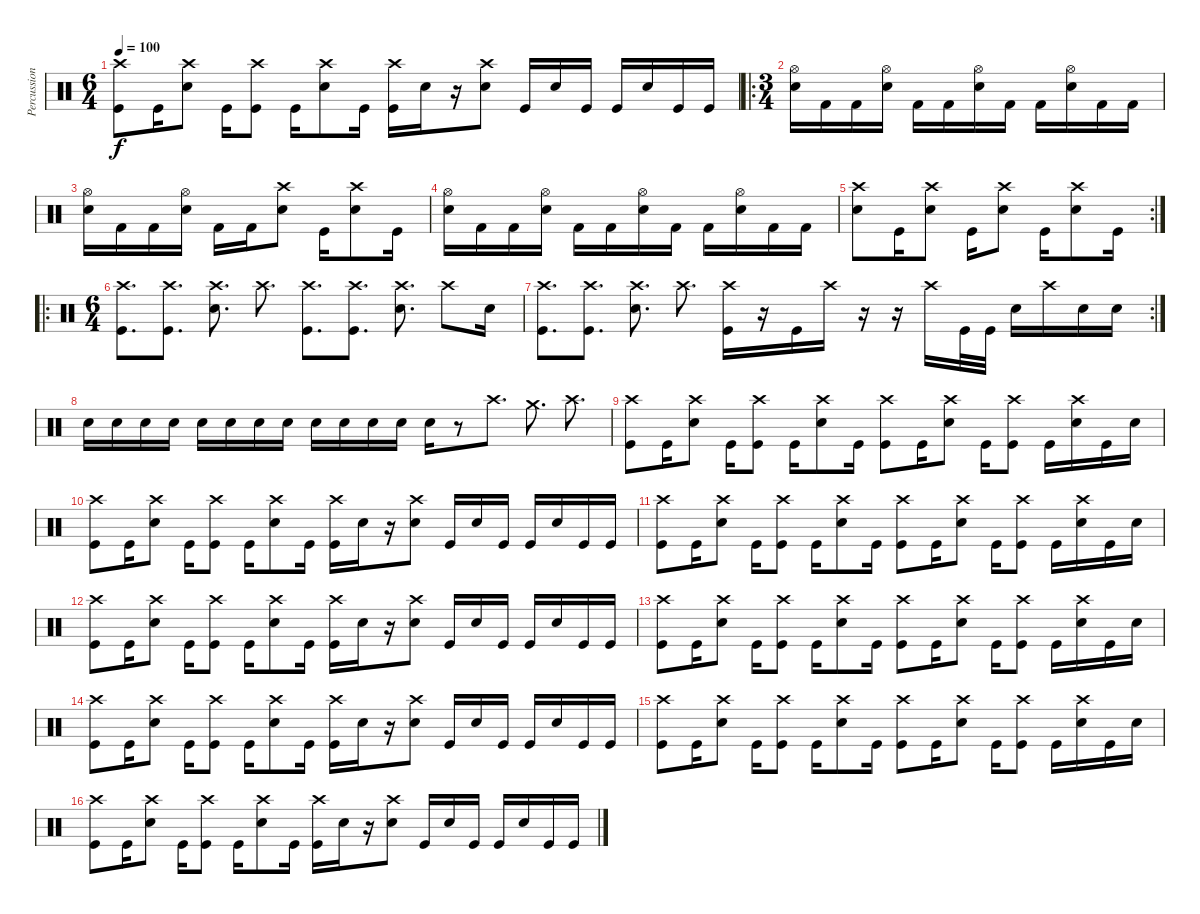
\track ("Percussion" "Percussion") {instrument percussion}
\staff {score}
\articulation defaults
\ts (6 4)
\tempo 100
\clef neutral
\ks c
("Crash high (hit)" "Kick (hit)").8{dy f} "Kick (hit)".16 ("Crash high (hit)" "Snare (hit) 2").8 "Kick (hit)".16 ("Crash high (hit)" "Kick (hit)").8 "Kick (hit)".16 ("Crash high (hit)" "Snare (hit) 2").8 "Kick (hit)".16 ("Crash high (hit)" "Kick (hit)").16 "Snare (hit) 2".16 r.16 ("Crash high (hit)" "Snare (hit) 2").8 "Kick (hit)".16 "Snare (hit) 2".16 "Kick (hit)".16 "Kick (hit)".16 "Snare (hit) 2".16 "Kick (hit)".16 "Kick (hit)".16 |
\ro
\ts (3 4)
("Hi-Hat (open)" "Snare (hit) 2").16 "Kick (hit) 2".16 "Kick (hit) 2".16 ("Hi-Hat (open)" "Snare (hit) 2").16 "Kick (hit) 2".16 "Kick (hit) 2".16 ("Hi-Hat (open)" "Snare (hit) 2").16 "Kick (hit) 2".16 "Kick (hit) 2".16 ("Hi-Hat (open)" "Snare (hit) 2").16 "Kick (hit) 2".16 "Kick (hit) 2".16 |
("Hi-Hat (open)" "Snare (hit) 2").16 "Kick (hit) 2".16 "Kick (hit) 2".16 ("Hi-Hat (open)" "Snare (hit) 2").16 "Kick (hit) 2".16 "Kick (hit) 2".16 ("Crash high (hit)" "Snare (hit) 2").8 "Kick (hit)".16 ("Crash high (hit)" "Snare (hit) 2").8 "Kick (hit)".16 |
("Hi-Hat (open)" "Snare (hit) 2").16 "Kick (hit) 2".16 "Kick (hit) 2".16 ("Hi-Hat (open)" "Snare (hit) 2").16 "Kick (hit) 2".16 "Kick (hit) 2".16 ("Hi-Hat (open)" "Snare (hit) 2").16 "Kick (hit) 2".16 "Kick (hit) 2".16 ("Hi-Hat (open)" "Snare (hit) 2").16 "Kick (hit) 2".16 "Kick (hit) 2".16 |
\rc 2
("Crash high (hit)" "Snare (hit) 2").8 "Kick (hit)".16 ("Crash high (hit)" "Snare (hit) 2").8 "Kick (hit)".16 ("Crash high (hit)" "Snare (hit) 2").8 "Kick (hit)".16 ("Crash high (hit)" "Snare (hit) 2").8 "Kick (hit)".16 |
\ro
\ts (6 4)
("Crash high (hit)" "Kick (hit)").8{d} ("Crash high (hit)" "Kick (hit)").8{d} ("Crash high (hit)" "Snare (hit) 2").8{d} "Crash high (hit)".8{d} ("Crash high (hit)" "Kick (hit)").8{d} ("Crash high (hit)" "Kick (hit)").8{d} ("Crash high (hit)" "Snare (hit) 2").8{d} "Crash high (hit)".8 "Snare (hit) 2".16 |
\rc 2
("Crash high (hit)" "Kick (hit)").8{d} ("Crash high (hit)" "Kick (hit)").8{d} ("Crash high (hit)" "Snare (hit) 2").8{d} "Crash high (hit)".8{d} ("Crash high (hit)" "Kick (hit)").16 r.16 "Kick (hit)".16 "Crash high (hit)".16 r.16 r.16 "Crash high (hit)".16 "Kick (hit)".32 "Kick (hit)".32 "Snare (hit) 2".16 "Crash high (hit)".16 "Snare (hit) 2".16 "Snare (hit) 2".16 |
"Snare (hit) 2".16 "Snare (hit) 2".16 "Snare (hit) 2".16 "Snare (hit) 2".16 "Snare (hit) 2".16 "Snare (hit) 2".16 "Snare (hit) 2".16 "Snare (hit) 2".16 "Snare (hit) 2".16 "Snare (hit) 2".16 "Snare (hit) 2".16 "Snare (hit) 2".16 "Snare (hit) 2".16 r.8 "Crash high (hit)".8{d} "Crash medium (hit)".8{d} "Crash high (hit)".8{d} |
("Crash high (hit)" "Kick (hit)").8 "Kick (hit)".16 ("Crash high (hit)" "Snare (hit) 2").8 "Kick (hit)".16 ("Crash high (hit)" "Kick (hit)").8 "Kick (hit)".16 ("Crash high (hit)" "Snare (hit) 2").8 "Kick (hit)".16 ("Crash high (hit)" "Kick (hit)").8 "Kick (hit)".16 ("Crash high (hit)" "Snare (hit) 2").8 "Kick (hit)".16 ("Crash high (hit)" "Kick (hit)").8 "Kick (hit)".16 ("Crash high (hit)" "Snare (hit) 2").16 "Kick (hit)".16 "Snare (hit) 2".16 |
("Crash high (hit)" "Kick (hit)").8 "Kick (hit)".16 ("Crash high (hit)" "Snare (hit) 2").8 "Kick (hit)".16 ("Crash high (hit)" "Kick (hit)").8 "Kick (hit)".16 ("Crash high (hit)" "Snare (hit) 2").8 "Kick (hit)".16 ("Crash high (hit)" "Kick (hit)").16 "Snare (hit) 2".16 r.16 ("Crash high (hit)" "Snare (hit) 2").8 "Kick (hit)".16 "Snare (hit) 2".16 "Kick (hit)".16 "Kick (hit)".16 "Snare (hit) 2".16 "Kick (hit)".16 "Kick (hit)".16 |
("Crash high (hit)" "Kick (hit)").8 "Kick (hit)".16 ("Crash high (hit)" "Snare (hit) 2").8 "Kick (hit)".16 ("Crash high (hit)" "Kick (hit)").8 "Kick (hit)".16 ("Crash high (hit)" "Snare (hit) 2").8 "Kick (hit)".16 ("Crash high (hit)" "Kick (hit)").8 "Kick (hit)".16 ("Crash high (hit)" "Snare (hit) 2").8 "Kick (hit)".16 ("Crash high (hit)" "Kick (hit)").8 "Kick (hit)".16 ("Crash high (hit)" "Snare (hit) 2").16 "Kick (hit)".16 "Snare (hit) 2".16 |
("Crash high (hit)" "Kick (hit)").8 "Kick (hit)".16 ("Crash high (hit)" "Snare (hit) 2").8 "Kick (hit)".16 ("Crash high (hit)" "Kick (hit)").8 "Kick (hit)".16 ("Crash high (hit)" "Snare (hit) 2").8 "Kick (hit)".16 ("Crash high (hit)" "Kick (hit)").16 "Snare (hit) 2".16 r.16 ("Crash high (hit)" "Snare (hit) 2").8 "Kick (hit)".16 "Snare (hit) 2".16 "Kick (hit)".16 "Kick (hit)".16 "Snare (hit) 2".16 "Kick (hit)".16 "Kick (hit)".16 |
("Crash high (hit)" "Kick (hit)").8 "Kick (hit)".16 ("Crash high (hit)" "Snare (hit) 2").8 "Kick (hit)".16 ("Crash high (hit)" "Kick (hit)").8 "Kick (hit)".16 ("Crash high (hit)" "Snare (hit) 2").8 "Kick (hit)".16 ("Crash high (hit)" "Kick (hit)").8 "Kick (hit)".16 ("Crash high (hit)" "Snare (hit) 2").8 "Kick (hit)".16 ("Crash high (hit)" "Kick (hit)").8 "Kick (hit)".16 ("Crash high (hit)" "Snare (hit) 2").16 "Kick (hit)".16 "Snare (hit) 2".16 |
("Crash high (hit)" "Kick (hit)").8 "Kick (hit)".16 ("Crash high (hit)" "Snare (hit) 2").8 "Kick (hit)".16 ("Crash high (hit)" "Kick (hit)").8 "Kick (hit)".16 ("Crash high (hit)" "Snare (hit) 2").8 "Kick (hit)".16 ("Crash high (hit)" "Kick (hit)").16 "Snare (hit) 2".16 r.16 ("Crash high (hit)" "Snare (hit) 2").8 "Kick (hit)".16 "Snare (hit) 2".16 "Kick (hit)".16 "Kick (hit)".16 "Snare (hit) 2".16 "Kick (hit)".16 "Kick (hit)".16 |
("Crash high (hit)" "Kick (hit)").8 "Kick (hit)".16 ("Crash high (hit)" "Snare (hit) 2").8 "Kick (hit)".16 ("Crash high (hit)" "Kick (hit)").8 "Kick (hit)".16 ("Crash high (hit)" "Snare (hit) 2").8 "Kick (hit)".16 ("Crash high (hit)" "Kick (hit)").8 "Kick (hit)".16 ("Crash high (hit)" "Snare (hit) 2").8 "Kick (hit)".16 ("Crash high (hit)" "Kick (hit)").8 "Kick (hit)".16 ("Crash high (hit)" "Snare (hit) 2").16 "Kick (hit)".16 "Snare (hit) 2".16 |
("Crash high (hit)" "Kick (hit)").8 "Kick (hit)".16 ("Crash high (hit)" "Snare (hit) 2").8 "Kick (hit)".16 ("Crash high (hit)" "Kick (hit)").8 "Kick (hit)".16 ("Crash high (hit)" "Snare (hit) 2").8 "Kick (hit)".16 ("Crash high (hit)" "Kick (hit)").16 "Snare (hit) 2".16 r.16 ("Crash high (hit)" "Snare (hit) 2").8 "Kick (hit)".16 "Snare (hit) 2".16 "Kick (hit)".16 "Kick (hit)".16 "Snare (hit) 2".16 "Kick (hit)".16 "Kick (hit)".16
